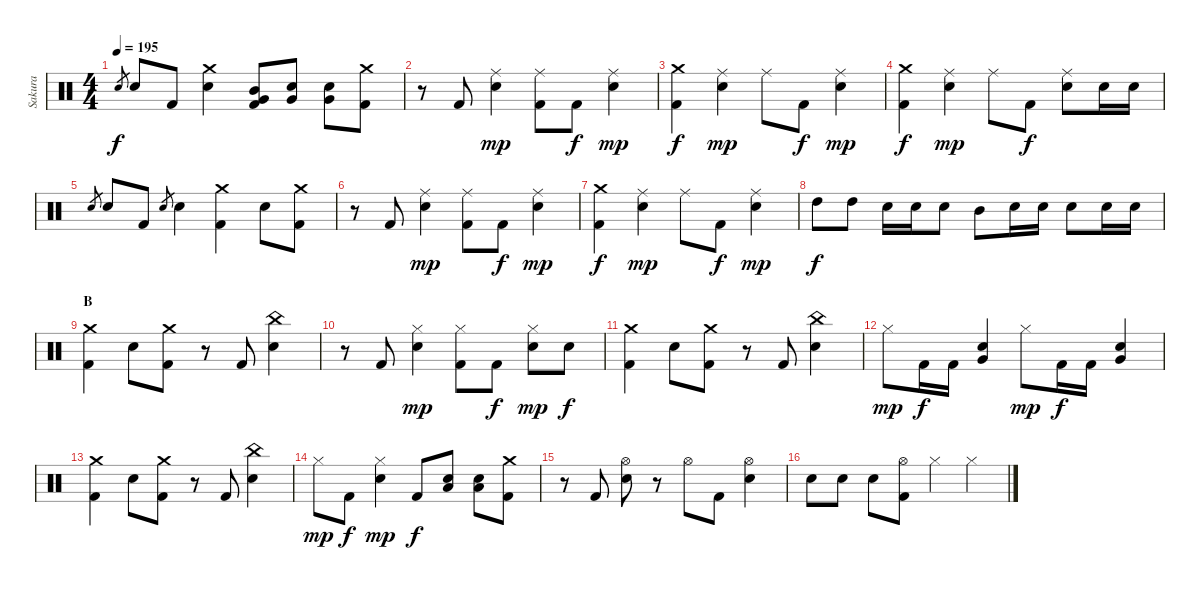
\track ("Sakura" "Sakura") {instrument percussion}
\staff {score}
\articulation defaults
\ts (4 4)
\tempo 195
\clef neutral
\ks c "Snare (hit) 2".8{gr dy f} "Snare (hit) 2".8 "Kick (hit) 2".8
("Crash medium (hit)" "Snare (hit) 2").4 ("Mid Tom (hit)" "Very Low Tom (hit)" "Kick (hit) 2").8 ("Snare (hit) 2" "Very Low Tom (hit)").8 ("Snare (hit) 2" "Very Low Tom (hit)").8 ("Crash medium (hit)" "Kick (hit) 2").8 |
r.8 "Kick (hit) 2".8 ("Ride (middle)" "Snare (hit) 2").4{dy mp} ("Ride (middle)" "Kick (hit) 2").8 "Kick (hit) 2".8{dy f} ("Ride (middle)" "Snare (hit) 2").4{dy mp} |
("Crash medium (hit)" "Kick (hit) 2").4{dy f} ("Ride (middle)" "Snare (hit) 2").4{dy mp} "Ride (middle)".8 "Kick (hit) 2".8{dy f} ("Ride (middle)" "Snare (hit) 2").4{dy mp} |
("Crash medium (hit)" "Kick (hit) 2").4{dy f} ("Ride (middle)" "Snare (hit) 2").4{dy mp} "Ride (middle)".8 "Kick (hit) 2".8{dy f} ("Ride (middle)" "Snare (hit) 2").8 "Snare (hit) 2".16 "Snare (hit) 2".16 |
"Snare (hit) 2".8{gr} "Snare (hit) 2".8 "Kick (hit) 2".8 "Snare (hit) 2".8{gr} "Snare (hit) 2".4 ("Crash medium (hit)" "Kick (hit) 2").4 "Snare (hit) 2".8 ("Crash medium (hit)" "Kick (hit) 2").8 |
r.8 "Kick (hit) 2".8 ("Ride (middle)" "Snare (hit) 2").4{dy mp} ("Ride (middle)" "Kick (hit) 2").8 "Kick (hit) 2".8{dy f} ("Ride (middle)" "Snare (hit) 2").4{dy mp} |
("Crash medium (hit)" "Kick (hit) 2").4{dy f} ("Ride (middle)" "Snare (hit) 2").4{dy mp} "Ride (middle)".8 "Kick (hit) 2".8{dy f} ("Ride (middle)" "Snare (hit) 2").4{dy mp} |
"High Tom (hit)".8{dy f} "High Tom (hit)".8 "Snare (hit) 2".16 "Snare (hit) 2".16 "Snare (hit) 2".8 "Mid Tom (hit)".8 "Snare (hit) 2".16 "Snare (hit) 2".16 "Snare (hit) 2".8 "Snare (hit) 2".16 "Snare (hit) 2".16 |
\section ("" "B")
("Crash medium (hit)" "Kick (hit) 2").4 "Snare (hit) 2".8 ("Crash medium (hit)" "Kick (hit) 2").8 r.8 "Kick (hit) 2".8 ("China (hit)" "Snare (hit) 2").4 |
r.8 "Kick (hit) 2".8 ("Hi-Hat (closed)" "Snare (hit) 2").4{dy mp} ("Hi-Hat (closed)" "Kick (hit) 2").8 "Kick (hit) 2".8{dy f} ("Hi-Hat (closed)" "Snare (hit) 2").8{dy mp} "Snare (hit) 2".8{dy f} |
("Crash medium (hit)" "Kick (hit) 2").4 "Snare (hit) 2".8 ("Crash medium (hit)" "Kick (hit) 2").8 r.8 "Kick (hit) 2".8 ("China (hit)" "Snare (hit) 2").4 |
"Hi-Hat (closed)".8{dy mp} "Kick (hit) 2".16{dy f} "Kick (hit) 2".16 ("Snare (hit) 2" "Very Low Tom (hit)").4 "Hi-Hat (closed)".8{dy mp} "Kick (hit) 2".16{dy f} "Kick (hit) 2".16 ("Snare (hit) 2" "Very Low Tom (hit)").4 |
("Crash medium (hit)" "Kick (hit) 2").4 "Snare (hit) 2".8 ("Crash medium (hit)" "Kick (hit) 2").8 r.8 "Kick (hit) 2".8 ("China (hit)" "Snare (hit) 2").4 |
"Hi-Hat (closed)".8{dy mp} "Kick (hit) 2".8{dy f} ("Hi-Hat (closed)" "Snare (hit) 2").4{dy mp} "Kick (hit) 2".8{dy f} ("Snare (hit) 2" "Low Tom (hit)").8 ("Snare (hit) 2" "Low Tom (hit)").8 ("Crash medium (hit)" "Kick (hit) 2").8 |
r.8 "Kick (hit) 2".8 ("Hi-Hat (open)" "Snare (hit) 2").8 r.8 "Hi-Hat (open)".8 "Kick (hit) 2".8 ("Hi-Hat (open)" "Snare (hit) 2").4 |
"Snare (hit) 2".8 "Snare (hit) 2".8 "Snare (hit) 2".8 ("Hi-Hat (open)" "Kick (hit) 2").8 "Hi-Hat (closed)".4 "Hi-Hat (closed)".4
